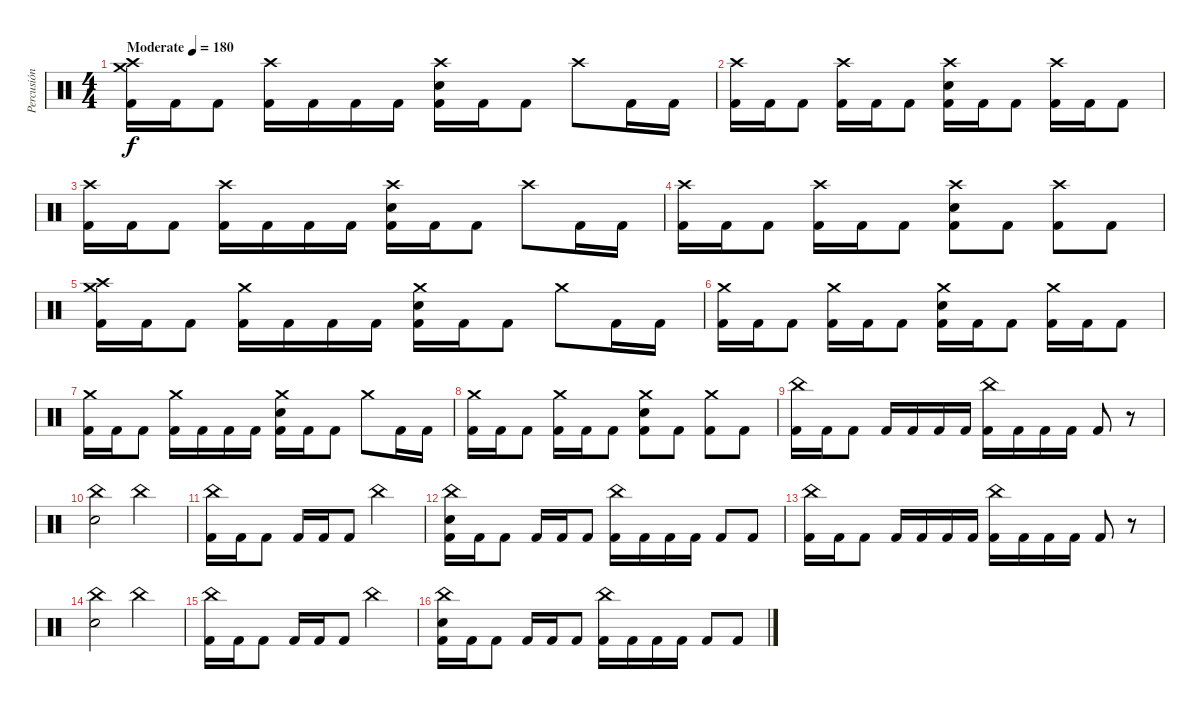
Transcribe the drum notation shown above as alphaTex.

\track ("Percusión" "Percusión") {instrument percussion}
\staff {score}
\articulation defaults
\ts (4 4)
\tempo (180 "Moderate")
\clef neutral
\ks c
("Crash medium (hit)" "Crash high (hit)" "Kick (hit) 2").16{dy f} "Kick (hit) 2".16 "Kick (hit) 2".8 ("Crash high (hit)" "Kick (hit) 2").16 "Kick (hit) 2".16 "Kick (hit) 2".16 "Kick (hit) 2".16 ("Crash high (hit)" "Electric Snare (hit)" "Kick (hit) 2").16 "Kick (hit) 2".16 "Kick (hit) 2".8 "Crash high (hit)".8 "Kick (hit) 2".16 "Kick (hit) 2".16 |
("Crash high (hit)" "Kick (hit) 2").16 "Kick (hit) 2".16 "Kick (hit) 2".8 ("Crash high (hit)" "Kick (hit) 2").16 "Kick (hit) 2".16 "Kick (hit) 2".8 ("Crash high (hit)" "Electric Snare (hit)" "Kick (hit) 2").16 "Kick (hit) 2".16 "Kick (hit) 2".8 ("Crash high (hit)" "Kick (hit) 2").16 "Kick (hit) 2".16 "Kick (hit) 2".8 |
("Crash high (hit)" "Kick (hit) 2").16 "Kick (hit) 2".16 "Kick (hit) 2".8 ("Crash high (hit)" "Kick (hit) 2").16 "Kick (hit) 2".16 "Kick (hit) 2".16 "Kick (hit) 2".16 ("Crash high (hit)" "Electric Snare (hit)" "Kick (hit) 2").16 "Kick (hit) 2".16 "Kick (hit) 2".8 "Crash high (hit)".8 "Kick (hit) 2".16 "Kick (hit) 2".16 |
("Crash high (hit)" "Kick (hit) 2").16 "Kick (hit) 2".16 "Kick (hit) 2".8 ("Crash high (hit)" "Kick (hit) 2").16 "Kick (hit) 2".16 "Kick (hit) 2".8 ("Crash high (hit)" "Electric Snare (hit)" "Kick (hit) 2").8 "Kick (hit) 2".8 ("Crash high (hit)" "Kick (hit) 2").8 "Kick (hit) 2".8 |
("Crash high (hit)" "Crash medium (hit)" "Kick (hit) 2").16 "Kick (hit) 2".16 "Kick (hit) 2".8 ("Crash medium (hit)" "Kick (hit) 2").16 "Kick (hit) 2".16 "Kick (hit) 2".16 "Kick (hit) 2".16 ("Crash medium (hit)" "Electric Snare (hit)" "Kick (hit) 2").16 "Kick (hit) 2".16 "Kick (hit) 2".8 "Crash medium (hit)".8 "Kick (hit) 2".16 "Kick (hit) 2".16 |
("Crash medium (hit)" "Kick (hit) 2").16 "Kick (hit) 2".16 "Kick (hit) 2".8 ("Crash medium (hit)" "Kick (hit) 2").16 "Kick (hit) 2".16 "Kick (hit) 2".8 ("Crash medium (hit)" "Electric Snare (hit)" "Kick (hit) 2").16 "Kick (hit) 2".16 "Kick (hit) 2".8 ("Crash medium (hit)" "Kick (hit) 2").16 "Kick (hit) 2".16 "Kick (hit) 2".8 |
("Crash medium (hit)" "Kick (hit) 2").16 "Kick (hit) 2".16 "Kick (hit) 2".8 ("Crash medium (hit)" "Kick (hit) 2").16 "Kick (hit) 2".16 "Kick (hit) 2".16 "Kick (hit) 2".16 ("Crash medium (hit)" "Electric Snare (hit)" "Kick (hit) 2").16 "Kick (hit) 2".16 "Kick (hit) 2".8 "Crash medium (hit)".8 "Kick (hit) 2".16 "Kick (hit) 2".16 |
("Crash medium (hit)" "Kick (hit) 2").16 "Kick (hit) 2".16 "Kick (hit) 2".8 ("Crash medium (hit)" "Kick (hit) 2").16 "Kick (hit) 2".16 "Kick (hit) 2".8 ("Crash medium (hit)" "Electric Snare (hit)" "Kick (hit) 2").8 "Kick (hit) 2".8 ("Crash medium (hit)" "Kick (hit) 2").8 "Kick (hit) 2".8 |
("China (hit)" "Kick (hit) 2").16 "Kick (hit) 2".16 "Kick (hit) 2".8 "Kick (hit) 2".16 "Kick (hit) 2".16 "Kick (hit) 2".16 "Kick (hit) 2".16 ("China (hit)" "Kick (hit) 2").16 "Kick (hit) 2".16 "Kick (hit) 2".16 "Kick (hit) 2".16 "Kick (hit) 2".8 r.8 |
("China (hit)" "Electric Snare (hit)").2 "China (hit)".2 |
("China (hit)" "Kick (hit) 2").16 "Kick (hit) 2".16 "Kick (hit) 2".8 "Kick (hit) 2".16 "Kick (hit) 2".16 "Kick (hit) 2".8 "China (hit)".2 |
("China (hit)" "Electric Snare (hit)" "Kick (hit) 2").16 "Kick (hit) 2".16 "Kick (hit) 2".8 "Kick (hit) 2".16 "Kick (hit) 2".16 "Kick (hit) 2".8 ("China (hit)" "Kick (hit) 2").16 "Kick (hit) 2".16 "Kick (hit) 2".16 "Kick (hit) 2".16 "Kick (hit) 2".8 "Kick (hit) 2".8 |
("China (hit)" "Kick (hit) 2").16 "Kick (hit) 2".16 "Kick (hit) 2".8 "Kick (hit) 2".16 "Kick (hit) 2".16 "Kick (hit) 2".16 "Kick (hit) 2".16 ("China (hit)" "Kick (hit) 2").16 "Kick (hit) 2".16 "Kick (hit) 2".16 "Kick (hit) 2".16 "Kick (hit) 2".8 r.8 |
("China (hit)" "Electric Snare (hit)").2 "China (hit)".2 |
("China (hit)" "Kick (hit) 2").16 "Kick (hit) 2".16 "Kick (hit) 2".8 "Kick (hit) 2".16 "Kick (hit) 2".16 "Kick (hit) 2".8 "China (hit)".2 |
("China (hit)" "Electric Snare (hit)" "Kick (hit) 2").16 "Kick (hit) 2".16 "Kick (hit) 2".8 "Kick (hit) 2".16 "Kick (hit) 2".16 "Kick (hit) 2".8 ("China (hit)" "Kick (hit) 2").16 "Kick (hit) 2".16 "Kick (hit) 2".16 "Kick (hit) 2".16 "Kick (hit) 2".8 "Kick (hit) 2".8
